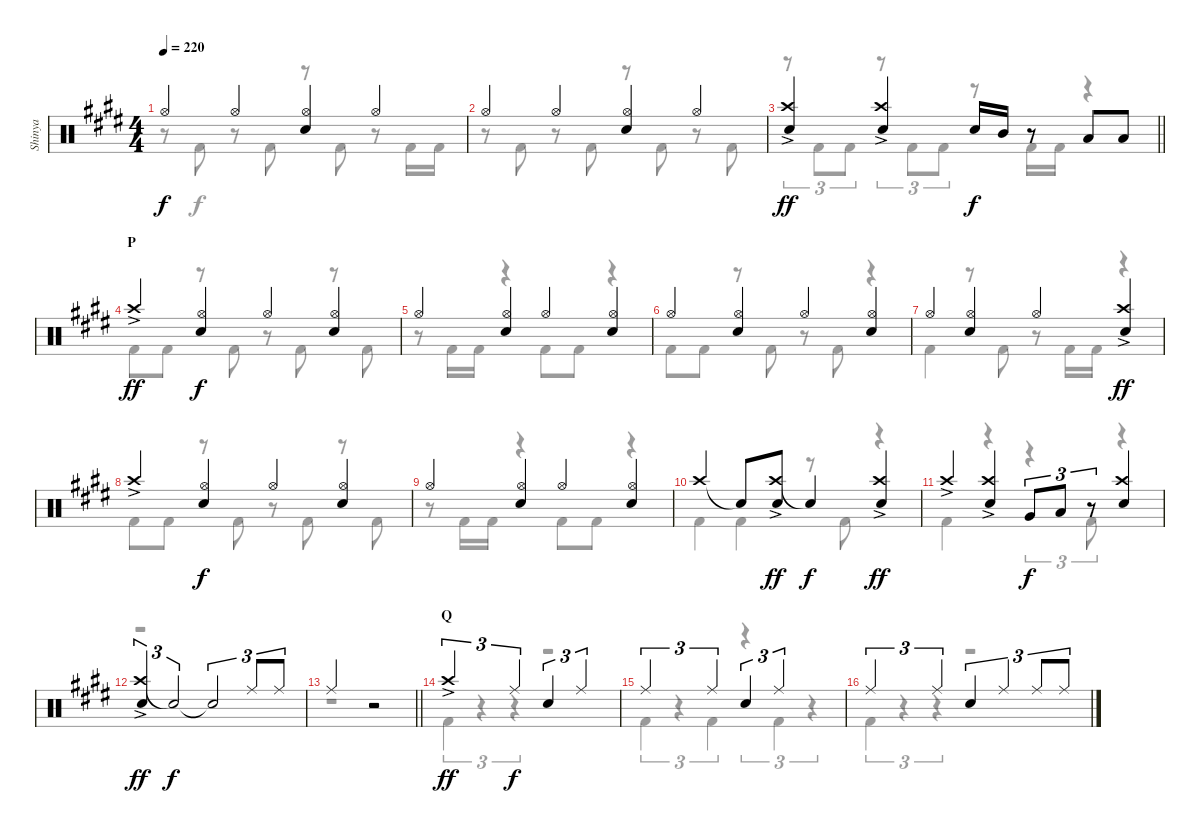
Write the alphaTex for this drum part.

\track ("Shinya" "Shinya") {instrument percussion}
\staff {score}
\articulation defaults
\voice
\ts (4 4)
\tempo 220
\clef neutral
\ks c#minor "Hi-Hat (open)".4{dy f} "Hi-Hat (open)".4
("Hi-Hat (open)" "Snare (hit) 2").4 "Hi-Hat (open)".4 |
"Hi-Hat (open)".4 "Hi-Hat (open)".4 ("Hi-Hat (open)" "Snare (hit) 2").4 "Hi-Hat (open)".4 |
\barLineRight lightlight
("Crash high (hit)"{ac} "Snare (hit) 2").4{dy ff} ("Crash high (hit)"{ac} "Snare (hit) 2").4 "Snare (hit) 2".16{dy f} "Mid Tom (hit)".16 r.8 "Low Tom (hit)".8 "Low Tom (hit)".8 |
\section ("" "P")
"Crash high (hit)"{ac}.4{dy ff} ("Hi-Hat (open)" "Snare (hit) 2").4{dy f} "Hi-Hat (open)".4 ("Hi-Hat (open)" "Snare (hit) 2").4 |
"Hi-Hat (open)".4 ("Hi-Hat (open)" "Snare (hit) 2").4 "Hi-Hat (open)".4 ("Hi-Hat (open)" "Snare (hit) 2").4 |
"Hi-Hat (open)".4 ("Hi-Hat (open)" "Snare (hit) 2").4 "Hi-Hat (open)".4 ("Hi-Hat (open)" "Snare (hit) 2").4 |
"Hi-Hat (open)".4 ("Hi-Hat (open)" "Snare (hit) 2").4 "Hi-Hat (open)".4 ("Crash high (hit)"{ac} "Snare (hit) 2").4{dy ff} |
"Crash high (hit)"{ac}.4 ("Hi-Hat (open)" "Snare (hit) 2").4{dy f} "Hi-Hat (open)".4 ("Hi-Hat (open)" "Snare (hit) 2").4 |
"Hi-Hat (open)".4 ("Hi-Hat (open)" "Snare (hit) 2").4 "Hi-Hat (open)".4 ("Hi-Hat (open)" "Snare (hit) 2").4 |
"Crash high (hit)".4 "Snare (hit)"{t}.8 ("Crash high (hit)"{ac} "Snare (hit) 2").8{dy ff} "Snare (hit)"{t}.4{dy f} ("Crash high (hit)"{ac} "Snare (hit) 2").4{dy ff} |
"Crash high (hit)"{ac}.4 ("Crash high (hit)"{ac} "Snare (hit) 2").4 "Very Low Tom (hit)".8{tu (3 2) dy f} "Low Tom (hit)".8{tu (3 2)} r.8{tu (3 2)} ("Crash high (hit)" "Snare (hit) 2").4 |
("Crash high (hit)"{ac} "Snare (hit) 2").4{tu (3 2) dy ff} "Snare (hit)"{t}.2{tu (3 2) dy f} "Snare (hit)"{t}.2{tu (3 2)} "Ride (middle)".8{tu (3 2)} "Ride (middle)".8{tu (3 2)} |
\barLineRight lightlight "Ride (middle)".2
r.2 |
\section ("" "Q")
"Crash high (hit)"{ac}.2{tu (3 2) dy ff} "Ride (middle)".4{tu (3 2) dy f} "Snare (hit) 2".4{tu (3 2)} "Ride (middle)".2{tu (3 2)} |
"Ride (middle)".2{tu (3 2)} "Ride (middle)".4{tu (3 2)} "Snare (hit) 2".4{tu (3 2)} "Ride (middle)".2{tu (3 2)} |
"Ride (middle)".2{tu (3 2)} "Ride (middle)".4{tu (3 2)} "Snare (hit) 2".4{tu (3 2)} "Ride (middle)".4{tu (3 2)} "Ride (middle)".8{tu (3 2)} "Ride (middle)".8{tu (3 2)}
\voice
\clef neutral
\ottava regular
\simile none
\ks c#minor
r.8{dy f} "Kick (hit) 2".8 r.8 "Kick (hit) 2".8 r.8 "Kick (hit) 2".8 r.8 "Kick (hit) 2".16 "Kick (hit) 2".16 |
r.8 "Kick (hit) 2".8 r.8 "Kick (hit) 2".8 r.8 "Kick (hit) 2".8 r.8 "Kick (hit) 2".8 |
\barLineRight lightlight
r.8{tu (3 2)} "Kick (hit) 2".8{tu (3 2)} "Kick (hit) 2".8{tu (3 2)} r.8{tu (3 2)} "Kick (hit) 2".8{tu (3 2)} "Kick (hit) 2".8{tu (3 2)} r.8 "Kick (hit) 2".16 "Kick (hit) 2".16 r.4 |
"Kick (hit) 2".8 "Kick (hit) 2".8 r.8 "Kick (hit) 2".8 r.8 "Kick (hit) 2".8 r.8 "Kick (hit) 2".8 |
r.8 "Kick (hit) 2".16 "Kick (hit) 2".16 r.4 "Kick (hit) 2".8 "Kick (hit) 2".8 r.4 |
"Kick (hit) 2".8 "Kick (hit) 2".8 r.8 "Kick (hit) 2".8 r.8 "Kick (hit) 2".8 r.4 |
"Kick (hit) 2".4 r.8 "Kick (hit) 2".8 r.8 "Kick (hit) 2".16 "Kick (hit) 2".16 r.4 |
"Kick (hit) 2".8 "Kick (hit) 2".8 r.8 "Kick (hit) 2".8 r.8 "Kick (hit) 2".8 r.8 "Kick (hit) 2".8 |
r.8 "Kick (hit) 2".16 "Kick (hit) 2".16 r.4 "Kick (hit) 2".8 "Kick (hit) 2".8 r.4 |
"Kick (hit) 2".4 "Kick (hit) 2".4 r.8 "Kick (hit) 2".8 r.4 |
"Kick (hit) 2".4 r.4 r.4{tu (3 2)} "Kick (hit) 2".8{tu (3 2)} r.4 |
r.1 |
\barLineRight lightlight
r.1 |
"Kick (hit) 2".4{tu (3 2)} r.4{tu (3 2)} r.4{tu (3 2)} r.2 |
"Kick (hit) 2".4{tu (3 2)} r.4{tu (3 2)} "Kick (hit) 2".4{tu (3 2)} r.4{tu (3 2)} "Kick (hit) 2".4{tu (3 2)} r.4{tu (3 2)} |
"Kick (hit) 2".4{tu (3 2)} r.4{tu (3 2)} r.4{tu (3 2)} r.2
